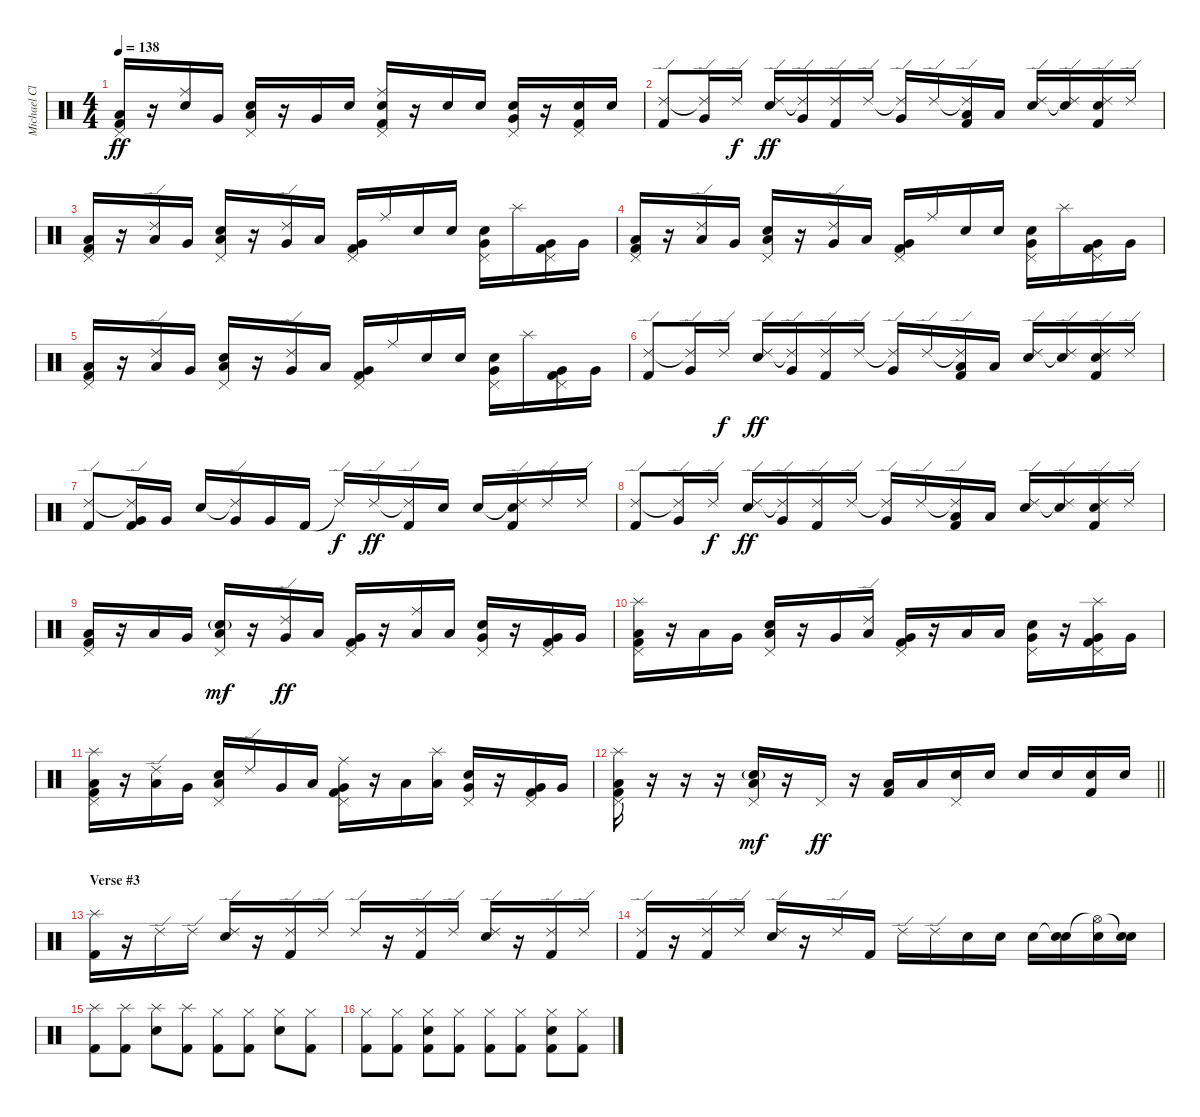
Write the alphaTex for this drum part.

\track ("Michael Clarke" "Michael Cl") {instrument percussion}
\staff {score}
\articulation defaults
\ts (4 4)
\tempo 138
\clef neutral
\ks c
("Pedal Hi-Hat (hit)" "Low Floor Tom (hit)" "Kick (hit) 2").16{dy ff} r.16 ("Ride (middle)" "Snare (hit) 2").16 "Very Low Tom (hit)".16 ("Pedal Hi-Hat (hit)" "Low Floor Tom (hit)" "Snare (hit) 2").16 r.16 "Very Low Tom (hit)".16 "Snare (hit) 2".16 ("Ride (middle)" "Pedal Hi-Hat (hit)" "Snare (hit) 2" "Kick (hit) 2").16 r.16 "Snare (hit) 2".16 "Snare (hit) 2".16 ("Pedal Hi-Hat (hit)" "Very Low Tom (hit)" "Snare (hit) 2").16 r.16 ("Pedal Hi-Hat (hit)" "Snare (hit) 2" "Kick (hit) 2").16 "Snare (hit) 2".16 |
("Ride (edge) 2" "Kick (hit) 2").8 ("Ride (edge) 2"{t} "Very Low Tom (hit)").16 "Ride (edge) 2".16{dy f} ("Ride (edge) 2" "Snare (hit) 2").16{dy ff} ("Ride (edge) 2"{t} "Very Low Tom (hit)").16 ("Ride (edge) 2" "Kick (hit) 2").16 "Ride (edge) 2".16 ("Ride (edge) 2"{t} "Very Low Tom (hit)").16 "Ride (edge) 2".16 ("Ride (edge) 2"{t} "Low Tom (hit)" "Kick (hit) 2").16 "Low Tom (hit)".16 ("Ride (edge) 2" "Snare (hit) 2").16 ("Ride (edge) 2"{t} "Snare (hit) 2").16 ("Ride (edge) 2" "Snare (hit) 2" "Kick (hit) 2").16 "Ride (edge) 2".16 |
("Pedal Hi-Hat (hit)" "Low Floor Tom (hit)" "Kick (hit) 2").16 r.16 ("Ride (edge) 2" "Low Floor Tom (hit)").16 "Very Low Tom (hit)".16 ("Pedal Hi-Hat (hit)" "Low Floor Tom (hit)" "Snare (hit) 2").16 r.16 ("Ride (edge) 2" "Very Low Tom (hit)").16 "Low Floor Tom (hit)".16 ("Pedal Hi-Hat (hit)" "Very Low Tom (hit)" "Kick (hit) 2").16 "Ride (middle)".16 "Snare (hit) 2".16 "Snare (hit) 2".16 ("Pedal Hi-Hat (hit)" "Very Low Tom (hit)" "Snare (hit) 2").16 "Splash (hit)".16 ("Pedal Hi-Hat (hit)" "Very Low Tom (hit)" "Kick (hit) 2").16 "Very Low Tom (hit)".16 |
("Pedal Hi-Hat (hit)" "Low Floor Tom (hit)" "Kick (hit) 2").16 r.16 ("Ride (edge) 2" "Low Floor Tom (hit)").16 "Very Low Tom (hit)".16 ("Pedal Hi-Hat (hit)" "Low Floor Tom (hit)" "Snare (hit) 2").16 r.16 ("Ride (edge) 2" "Very Low Tom (hit)").16 "Low Floor Tom (hit)".16 ("Pedal Hi-Hat (hit)" "Very Low Tom (hit)" "Kick (hit) 2").16 "Ride (middle)".16 "Snare (hit) 2".16 "Snare (hit) 2".16 ("Pedal Hi-Hat (hit)" "Very Low Tom (hit)" "Snare (hit) 2").16 "Splash (hit)".16 ("Pedal Hi-Hat (hit)" "Very Low Tom (hit)" "Kick (hit) 2").16 "Very Low Tom (hit)".16 |
("Pedal Hi-Hat (hit)" "Low Floor Tom (hit)" "Kick (hit) 2").16 r.16 ("Ride (edge) 2" "Low Floor Tom (hit)").16 "Very Low Tom (hit)".16 ("Pedal Hi-Hat (hit)" "Low Floor Tom (hit)" "Snare (hit) 2").16 r.16 ("Ride (edge) 2" "Very Low Tom (hit)").16 "Low Floor Tom (hit)".16 ("Pedal Hi-Hat (hit)" "Very Low Tom (hit)" "Kick (hit) 2").16 "Ride (middle)".16 "Snare (hit) 2".16 "Snare (hit) 2".16 ("Pedal Hi-Hat (hit)" "Very Low Tom (hit)" "Snare (hit) 2").16 "Splash (hit)".16 ("Pedal Hi-Hat (hit)" "Very Low Tom (hit)" "Kick (hit) 2").16 "Very Low Tom (hit)".16 |
("Ride (edge) 2" "Kick (hit) 2").8 ("Ride (edge) 2"{t} "Very Low Tom (hit)").16 "Ride (edge) 2".16{dy f} ("Ride (edge) 2" "Snare (hit) 2").16{dy ff} ("Ride (edge) 2"{t} "Very Low Tom (hit)").16 ("Ride (edge) 2" "Kick (hit) 2").16 "Ride (edge) 2".16 ("Ride (edge) 2"{t} "Very Low Tom (hit)").16 "Ride (edge) 2".16 ("Ride (edge) 2"{t} "Low Tom (hit)" "Kick (hit) 2").16 "Low Tom (hit)".16 ("Ride (edge) 2" "Snare (hit) 2").16 ("Ride (edge) 2"{t} "Snare (hit) 2").16 ("Ride (edge) 2" "Snare (hit) 2" "Kick (hit) 2").16 "Ride (edge) 2".16 |
("Ride (edge) 2" "Kick (hit) 2").8 ("Ride (edge) 2"{t} "Very Low Tom (hit)" "Kick (hit) 2").16 "Very Low Tom (hit)".16 "Snare (hit) 2".16 ("Ride (edge) 2"{t} "Very Low Tom (hit)").16 "Very Low Tom (hit)".16 "Kick (hit) 2".16 "Ride (edge) 2"{t}.16{dy f} "Ride (edge) 2".16{dy ff} ("Ride (edge) 2"{t} "Kick (hit) 2").16 "Snare (hit) 2".16 "Snare (hit) 2".16 ("Ride (edge) 2"{t} "Snare (hit) 2" "Kick (hit) 2").16 "Ride (edge) 2".16 "Ride (edge) 2".16 |
("Ride (edge) 2" "Kick (hit) 2").8 ("Ride (edge) 2"{t} "Very Low Tom (hit)").16 "Ride (edge) 2".16{dy f} ("Ride (edge) 2" "Snare (hit) 2").16{dy ff} ("Ride (edge) 2"{t} "Very Low Tom (hit)").16 ("Ride (edge) 2" "Kick (hit) 2").16 "Ride (edge) 2".16 ("Ride (edge) 2"{t} "Very Low Tom (hit)").16 "Ride (edge) 2".16 ("Ride (edge) 2"{t} "Low Tom (hit)" "Kick (hit) 2").16 "Low Tom (hit)".16 ("Ride (edge) 2" "Snare (hit) 2").16 ("Ride (edge) 2"{t} "Snare (hit) 2").16 ("Ride (edge) 2" "Snare (hit) 2" "Kick (hit) 2").16 "Ride (edge) 2".16 |
("Pedal Hi-Hat (hit)" "Low Floor Tom (hit)" "Kick (hit) 2").16 r.16 "Low Floor Tom (hit)".16 "Very Low Tom (hit)".16 ("Pedal Hi-Hat (hit)" "Low Floor Tom (hit)" "Snare (hit) 2"{g}).16{dy mf} r.16 ("Ride (edge) 2" "Very Low Tom (hit)").16{dy ff} "Low Floor Tom (hit)".16 ("Pedal Hi-Hat (hit)" "Very Low Tom (hit)" "Kick (hit) 2").16 r.16 ("Ride (middle)" "Low Floor Tom (hit)").16 "Low Floor Tom (hit)".16 ("Pedal Hi-Hat (hit)" "Very Low Tom (hit)" "Snare (hit) 2").16 r.16 ("Pedal Hi-Hat (hit)" "Very Low Tom (hit)" "Kick (hit) 2").16 "Very Low Tom (hit)".16 |
("Splash (hit)" "Pedal Hi-Hat (hit)" "Low Floor Tom (hit)" "Kick (hit) 2").16 r.16 "Low Floor Tom (hit)".16 "Very Low Tom (hit)".16 ("Pedal Hi-Hat (hit)" "Low Floor Tom (hit)" "Snare (hit) 2").16 r.16 "Very Low Tom (hit)".16 ("Ride (edge) 2" "Low Floor Tom (hit)").16 ("Pedal Hi-Hat (hit)" "Very Low Tom (hit)" "Kick (hit) 2").16 r.16 "Low Floor Tom (hit)".16 "Low Floor Tom (hit)".16 ("Pedal Hi-Hat (hit)" "Very Low Tom (hit)" "Snare (hit) 2").16 r.16 ("Splash (hit)" "Pedal Hi-Hat (hit)" "Very Low Tom (hit)" "Kick (hit) 2").16 "Very Low Tom (hit)".16 |
("Splash (hit)" "Pedal Hi-Hat (hit)" "Low Floor Tom (hit)" "Kick (hit) 2").16 r.16 ("Ride (edge) 2" "Low Floor Tom (hit)").16 "Very Low Tom (hit)".16 ("Pedal Hi-Hat (hit)" "Low Floor Tom (hit)" "Snare (hit) 2").16 "Ride (edge) 2".16 "Very Low Tom (hit)".16 "Low Floor Tom (hit)".16 ("Ride (middle)" "Pedal Hi-Hat (hit)" "Very Low Tom (hit)" "Kick (hit) 2").16 r.16 "Low Floor Tom (hit)".16 ("Splash (hit)" "Low Floor Tom (hit)").16 ("Pedal Hi-Hat (hit)" "Very Low Tom (hit)" "Snare (hit) 2").16 r.16 ("Pedal Hi-Hat (hit)" "Very Low Tom (hit)" "Kick (hit) 2").16 "Very Low Tom (hit)".16 |
\barLineRight lightlight
("Splash (hit)" "Pedal Hi-Hat (hit)" "Low Floor Tom (hit)" "Kick (hit) 2").16 r.16 r.16 r.16 ("Pedal Hi-Hat (hit)" "Low Floor Tom (hit)" "Snare (hit) 2"{g}).16{dy mf} r.16 "Pedal Hi-Hat (hit)".16{dy ff} r.16 ("Low Tom (hit)" "Kick (hit) 2").16 "Low Tom (hit)".16 ("Pedal Hi-Hat (hit)" "Snare (hit) 2").16 "Snare (hit) 2".16 "Snare (hit) 2".16 "Snare (hit) 2".16 ("Snare (hit) 2" "Kick (hit) 2").16 "Snare (hit) 2".16 |
\section ("" "Verse #3")
("Splash (hit)" "Kick (hit) 2").16 r.16 "Ride (edge) 2".16 "Ride (edge) 2".16 ("Ride (edge) 2" "Snare (hit) 2").16 r.16 ("Ride (edge) 2" "Kick (hit) 2").16 "Ride (edge) 2".16 "Ride (edge) 2".16 r.16 ("Ride (edge) 2" "Kick (hit) 2").16 "Ride (edge) 2".16 ("Ride (edge) 2" "Snare (hit) 2").16 r.16 ("Ride (edge) 2" "Kick (hit) 2").16 "Ride (edge) 2".16 |
("Ride (edge) 2" "Kick (hit) 2").16 r.16 ("Ride (edge) 2" "Kick (hit) 2").16 "Ride (edge) 2".16 ("Ride (edge) 2" "Snare (hit) 2").16 r.16 "Ride (edge) 2".16 "Kick (hit) 2".16 "Ride (edge) 2".16 "Ride (edge) 2".16 "Snare (hit) 2".16 "Snare (hit) 2".16 "Snare (hit) 2".16 ("Snare (hit)"{t} "Snare (hit) 2").16 ("Hi-Hat (open)"{t} "Snare (hit) 2").16 ("Snare (hit)"{t} "Snare (hit) 2").16 |
("Splash (hit)" "Kick (hit) 2").8 ("Splash (hit)" "Kick (hit) 2").8 ("Splash (hit)" "Snare (hit) 2").8 ("Splash (hit)" "Kick (hit) 2").8 ("Hi-Hat (closed)" "Kick (hit) 2").8 ("Hi-Hat (closed)" "Kick (hit) 2").8 ("Hi-Hat (closed)" "Snare (hit) 2").8 ("Hi-Hat (closed)" "Kick (hit) 2").8 |
("Hi-Hat (closed)" "Kick (hit) 2").8 ("Hi-Hat (closed)" "Kick (hit) 2").8 ("Hi-Hat (closed)" "Snare (hit) 2" "Kick (hit) 2").8 ("Hi-Hat (closed)" "Kick (hit) 2").8 ("Hi-Hat (closed)" "Kick (hit) 2").8 ("Hi-Hat (closed)" "Kick (hit) 2").8 ("Hi-Hat (closed)" "Snare (hit) 2" "Kick (hit) 2").8 ("Hi-Hat (closed)" "Kick (hit) 2").8
